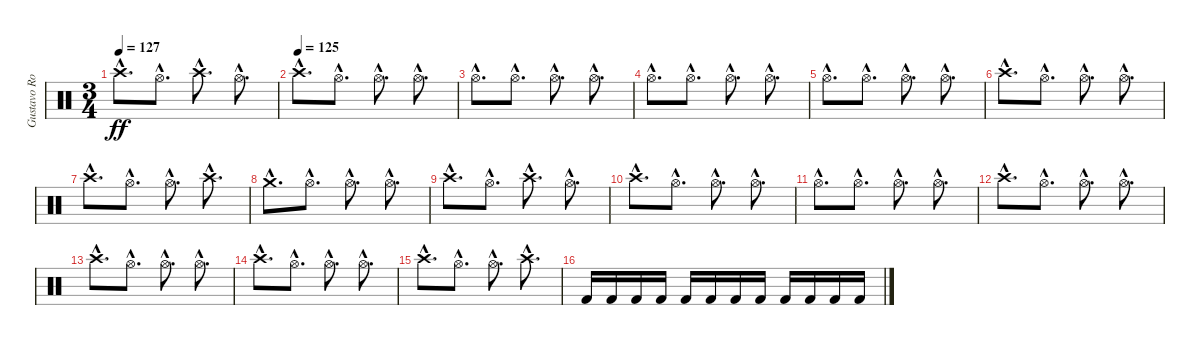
\track ("Gustavo Rowek 1" "Gustavo Ro") {instrument percussion}
\staff {score}
\articulation defaults
\ts (3 4)
\tempo 127
\clef neutral
\ks c "Crash high (hit)"{hac}.8{d dy ff} "Hi-Hat (open)"{hac}.8{d} "Crash high (hit)"{hac}.8{d} "Hi-Hat (open)"{hac}.8{d}
|
\tempo (125)
"Crash high (hit)"{hac}.8{d} "Hi-Hat (open)"{hac}.8{d} "Hi-Hat (open)"{hac}.8{d} "Hi-Hat (open)"{hac}.8{d} |
"Hi-Hat (open)"{hac}.8{d} "Hi-Hat (open)"{hac}.8{d} "Hi-Hat (open)"{hac}.8{d} "Hi-Hat (open)"{hac}.8{d} |
"Hi-Hat (open)"{hac}.8{d} "Hi-Hat (open)"{hac}.8{d} "Hi-Hat (open)"{hac}.8{d} "Hi-Hat (open)"{hac}.8{d} |
"Hi-Hat (open)"{hac}.8{d} "Hi-Hat (open)"{hac}.8{d} "Hi-Hat (open)"{hac}.8{d} "Hi-Hat (open)"{hac}.8{d} |
"Crash high (hit)"{hac}.8{d} "Hi-Hat (open)"{hac}.8{d} "Hi-Hat (open)"{hac}.8{d} "Hi-Hat (open)"{hac}.8{d} |
"Crash high (hit)"{hac}.8{d} "Hi-Hat (open)"{hac}.8{d} "Hi-Hat (open)"{hac}.8{d} "Crash high (hit)"{hac}.8{d} |
"Crash medium (hit)"{hac}.8{d} "Hi-Hat (open)"{hac}.8{d} "Hi-Hat (open)"{hac}.8{d} "Hi-Hat (open)"{hac}.8{d} |
"Crash high (hit)"{hac}.8{d} "Hi-Hat (open)"{hac}.8{d} "Crash high (hit)"{hac}.8{d} "Hi-Hat (open)"{hac}.8{d} |
"Crash high (hit)"{hac}.8{d} "Hi-Hat (open)"{hac}.8{d} "Hi-Hat (open)"{hac}.8{d} "Hi-Hat (open)"{hac}.8{d} |
"Hi-Hat (open)"{hac}.8{d} "Hi-Hat (open)"{hac}.8{d} "Hi-Hat (open)"{hac}.8{d} "Hi-Hat (open)"{hac}.8{d} |
"Crash high (hit)"{hac}.8{d} "Hi-Hat (open)"{hac}.8{d} "Hi-Hat (open)"{hac}.8{d} "Hi-Hat (open)"{hac}.8{d} |
"Crash high (hit)"{hac}.8{d} "Hi-Hat (open)"{hac}.8{d} "Hi-Hat (open)"{hac}.8{d} "Hi-Hat (open)"{hac}.8{d} |
"Crash high (hit)"{hac}.8{d} "Hi-Hat (open)"{hac}.8{d} "Hi-Hat (open)"{hac}.8{d} "Hi-Hat (open)"{hac}.8{d} |
"Crash high (hit)"{hac}.8{d} "Hi-Hat (open)"{hac}.8{d} "Hi-Hat (open)"{hac}.8{d} "Crash high (hit)"{hac}.8{d} |
"Kick (hit) 2".16 "Kick (hit) 2".16 "Kick (hit) 2".16 "Kick (hit) 2".16 "Kick (hit) 2".16 "Kick (hit) 2".16 "Kick (hit) 2".16 "Kick (hit) 2".16 "Kick (hit) 2".16 "Kick (hit) 2".16 "Kick (hit) 2".16 "Kick (hit) 2".16
